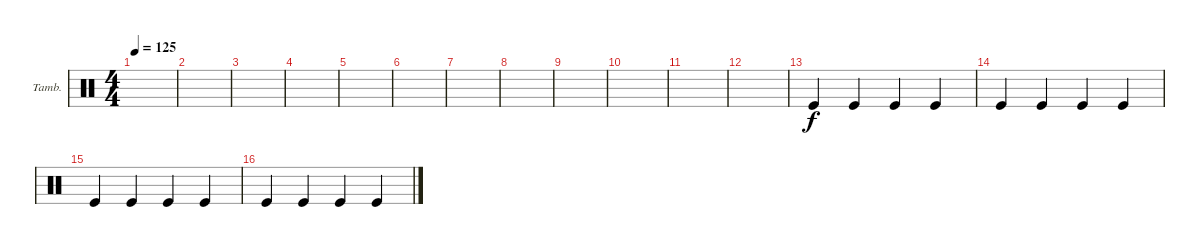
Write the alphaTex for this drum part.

\defaultSystemsLayout 4
\bracketExtendMode groupsimilarinstruments
\firstSystemTrackNameOrientation horizontal
\otherSystemsTrackNameOrientation horizontal
\track ("Tambourine" "Tamb.") {instrument percussion}
\staff {score}
\articulation defaults
\ts (4 4)
\tempo 125
\clef neutral
\scale
0.472222
\ks c
|
|
|
\scale
0.263889 |
\scale
0.263889 |
\scale
0.333333 |
\scale
0.333333 |
\scale
0.333333 |
\scale
0.333333 |
\scale
0.333333 |
\scale
0.333333 |
\scale
0.333333 |
\scale
0.333333 "Kick (hit)".4 "Kick (hit)".4 "Kick (hit)".4 "Kick (hit)".4 |
\scale
0.333333 "Kick (hit)".4 "Kick (hit)".4 "Kick (hit)".4 "Kick (hit)".4 |
\scale
0.333333 "Kick (hit)".4 "Kick (hit)".4 "Kick (hit)".4 "Kick (hit)".4 |
\scale
0.333333 "Kick (hit)".4 "Kick (hit)".4 "Kick (hit)".4 "Kick (hit)".4
